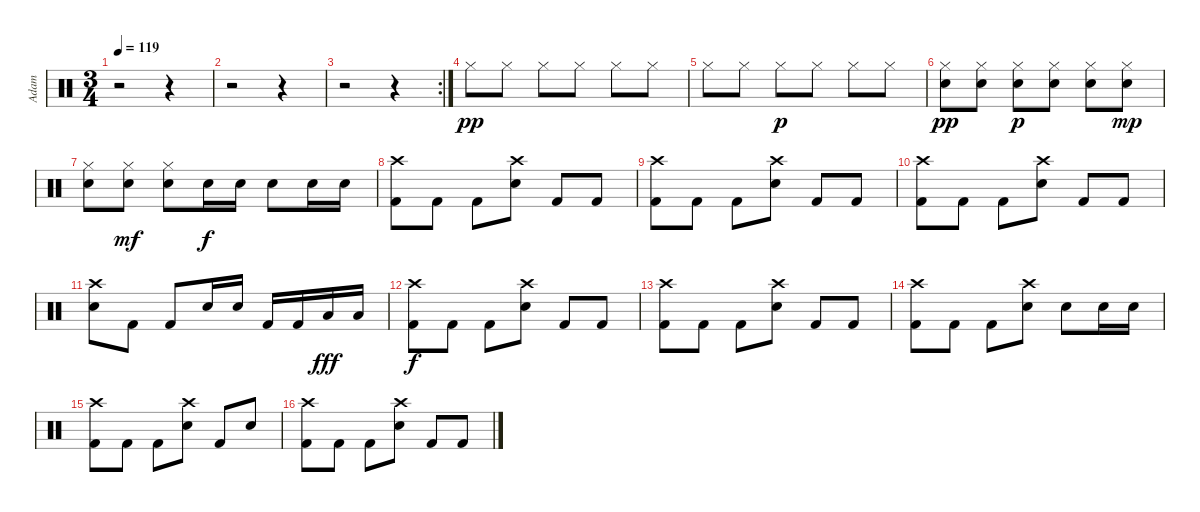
\track ("Adam" "Adam") {instrument percussion}
\staff {score}
\articulation defaults
\ts (3 4)
\tempo 119
\clef neutral
\ks c
r.2{dy f} r.4 |
r.2 r.4 |
\rc 2
r.2 r.4 |
"Hi-Hat (closed)".8{dy pp} "Hi-Hat (closed)".8 "Hi-Hat (closed)".8 "Hi-Hat (closed)".8 "Hi-Hat (closed)".8 "Hi-Hat (closed)".8 |
"Hi-Hat (closed)".8 "Hi-Hat (closed)".8 "Hi-Hat (closed)".8{dy p} "Hi-Hat (closed)".8 "Hi-Hat (closed)".8 "Hi-Hat (closed)".8 |
("Hi-Hat (closed)" "Electric Snare (hit)").8{dy pp} ("Hi-Hat (closed)" "Electric Snare (hit)").8 ("Hi-Hat (closed)" "Electric Snare (hit)").8{dy p} ("Hi-Hat (closed)" "Electric Snare (hit)").8 ("Hi-Hat (closed)" "Electric Snare (hit)").8 ("Hi-Hat (closed)" "Electric Snare (hit)").8{dy mp} |
("Hi-Hat (closed)" "Electric Snare (hit)").8 ("Hi-Hat (closed)" "Electric Snare (hit)").8{dy mf} ("Hi-Hat (closed)" "Electric Snare (hit)").8 "Electric Snare (hit)".16{dy f} "Electric Snare (hit)".16 "Electric Snare (hit)".8 "Electric Snare (hit)".16 "Electric Snare (hit)".16 |
("Crash high (hit)" "Kick (hit) 2").8 "Kick (hit) 2".8 "Kick (hit) 2".8 ("Crash high (hit)" "Electric Snare (hit)").8 "Kick (hit) 2".8 "Kick (hit) 2".8 |
("Crash high (hit)" "Kick (hit) 2").8 "Kick (hit) 2".8 "Kick (hit) 2".8 ("Crash high (hit)" "Electric Snare (hit)").8 "Kick (hit) 2".8 "Kick (hit) 2".8 |
("Crash high (hit)" "Kick (hit) 2").8 "Kick (hit) 2".8 "Kick (hit) 2".8 ("Crash high (hit)" "Electric Snare (hit)").8 "Kick (hit) 2".8 "Kick (hit) 2".8 |
("Crash high (hit)" "Electric Snare (hit)").8 "Kick (hit) 2".8 "Kick (hit) 2".8 "Electric Snare (hit)".16 "Electric Snare (hit)".16 "Kick (hit) 2".16 "Kick (hit) 2".16 "Low Tom (hit)".16{dy fff} "Low Tom (hit)".16 |
("Crash high (hit)" "Kick (hit) 2").8{dy f} "Kick (hit) 2".8 "Kick (hit) 2".8 ("Crash high (hit)" "Electric Snare (hit)").8 "Kick (hit) 2".8 "Kick (hit) 2".8 |
("Crash high (hit)" "Kick (hit) 2").8 "Kick (hit) 2".8 "Kick (hit) 2".8 ("Crash high (hit)" "Electric Snare (hit)").8 "Kick (hit) 2".8 "Kick (hit) 2".8 |
("Crash high (hit)" "Kick (hit) 2").8 "Kick (hit) 2".8 "Kick (hit) 2".8 ("Crash high (hit)" "Electric Snare (hit)").8 "Electric Snare (hit)".8 "Electric Snare (hit)".16 "Electric Snare (hit)".16 |
("Crash high (hit)" "Kick (hit) 2").8 "Kick (hit) 2".8 "Kick (hit) 2".8 ("Crash high (hit)" "Electric Snare (hit)").8 "Kick (hit) 2".8 "Electric Snare (hit)".8 |
("Crash high (hit)" "Kick (hit) 2").8 "Kick (hit) 2".8 "Kick (hit) 2".8 ("Crash high (hit)" "Electric Snare (hit)").8 "Kick (hit) 2".8 "Kick (hit) 2".8
